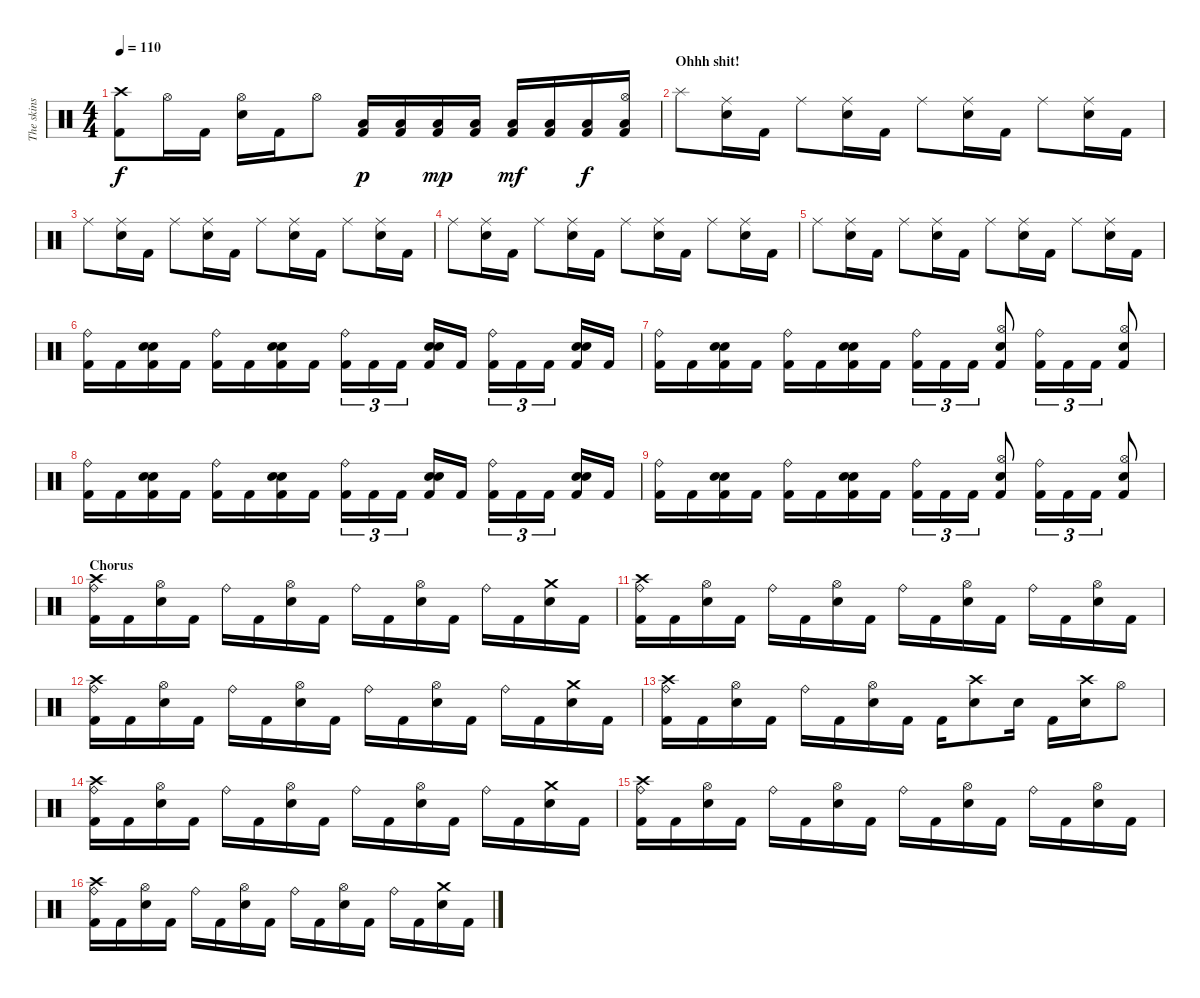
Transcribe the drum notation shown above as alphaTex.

\track ("The skins" "The skins") {instrument percussion}
\staff {score}
\articulation defaults
\ts (4 4)
\tempo 110
\clef neutral
\ks c
("Crash high (hit)" "Kick (hit) 2").8{dy f} "Hi-Hat (open)".16 "Kick (hit) 2".16 ("Hi-Hat (open)" "Electric Snare (hit)").16 "Kick (hit) 2".16 "Hi-Hat (open)".8 ("Low Floor Tom (hit)" "Kick (hit) 2").16{dy p} ("Low Floor Tom (hit)" "Kick (hit) 2").16 ("Low Floor Tom (hit)" "Kick (hit) 2").16{dy mp} ("Low Floor Tom (hit)" "Kick (hit) 2").16 ("Low Floor Tom (hit)" "Kick (hit) 2").16{dy mf} ("Low Floor Tom (hit)" "Kick (hit) 2").16 ("Low Floor Tom (hit)" "Kick (hit) 2").16{dy f} ("Hi-Hat (open)" "Low Floor Tom (hit)" "Kick (hit) 2").16 |
\section ("" "Ohhh shit!")
"Splash (hit)".8 ("Ride (middle)" "Electric Snare (hit)").16 "Kick (hit) 2".16 "Ride (middle)".8 ("Ride (middle)" "Electric Snare (hit)").16 "Kick (hit) 2".16 "Ride (middle)".8 ("Ride (middle)" "Electric Snare (hit)").16 "Kick (hit) 2".16 "Ride (middle)".8 ("Ride (middle)" "Electric Snare (hit)").16 "Kick (hit) 2".16 |
"Ride (middle)".8 ("Ride (middle)" "Electric Snare (hit)").16 "Kick (hit) 2".16 "Ride (middle)".8 ("Ride (middle)" "Electric Snare (hit)").16 "Kick (hit) 2".16 "Ride (middle)".8 ("Ride (middle)" "Electric Snare (hit)").16 "Kick (hit) 2".16 "Ride (middle)".8 ("Ride (middle)" "Electric Snare (hit)").16 "Kick (hit) 2".16 |
"Ride (middle)".8 ("Ride (middle)" "Electric Snare (hit)").16 "Kick (hit) 2".16 "Ride (middle)".8 ("Ride (middle)" "Electric Snare (hit)").16 "Kick (hit) 2".16 "Ride (middle)".8 ("Ride (middle)" "Electric Snare (hit)").16 "Kick (hit) 2".16 "Ride (middle)".8 ("Ride (middle)" "Electric Snare (hit)").16 "Kick (hit) 2".16 |
"Ride (middle)".8 ("Ride (middle)" "Electric Snare (hit)").16 "Kick (hit) 2".16 "Ride (middle)".8 ("Ride (middle)" "Electric Snare (hit)").16 "Kick (hit) 2".16 "Ride (middle)".8 ("Ride (middle)" "Electric Snare (hit)").16 "Kick (hit) 2".16 "Ride (middle)".8 ("Ride (middle)" "Electric Snare (hit)").16 "Kick (hit) 2".16 |
("Ride (bell)" "Kick (hit) 2").16 "Kick (hit) 2".16 ("Electric Snare (hit)" "Electric Snare (hit)" "Kick (hit) 2").16 "Kick (hit) 2".16 ("Ride (bell)" "Kick (hit) 2").16 "Kick (hit) 2".16 ("Electric Snare (hit)" "Electric Snare (hit)" "Kick (hit) 2").16 "Kick (hit) 2".16 ("Ride (bell)" "Kick (hit) 2").16{tu (3 2)} "Kick (hit) 2".16{tu (3 2)} "Kick (hit) 2".16{tu (3 2)} ("Electric Snare (hit)" "Electric Snare (hit)" "Kick (hit) 2").16 "Kick (hit) 2".16 ("Ride (bell)" "Kick (hit) 2").16{tu (3 2)} "Kick (hit) 2".16{tu (3 2)} "Kick (hit) 2".16{tu (3 2)} ("Electric Snare (hit)" "Electric Snare (hit)" "Kick (hit) 2").16 "Kick (hit) 2".16 |
("Ride (bell)" "Kick (hit) 2").16 "Kick (hit) 2".16 ("Electric Snare (hit)" "Electric Snare (hit)" "Kick (hit) 2").16 "Kick (hit) 2".16 ("Ride (bell)" "Kick (hit) 2").16 "Kick (hit) 2".16 ("Electric Snare (hit)" "Electric Snare (hit)" "Kick (hit) 2").16 "Kick (hit) 2".16 ("Ride (bell)" "Kick (hit) 2").16{tu (3 2)} "Kick (hit) 2".16{tu (3 2)} "Kick (hit) 2".16{tu (3 2)} ("Hi-Hat (open)" "Electric Snare (hit)" "Kick (hit) 2").8 ("Ride (bell)" "Kick (hit) 2").16{tu (3 2)} "Kick (hit) 2".16{tu (3 2)} "Kick (hit) 2".16{tu (3 2)} ("Hi-Hat (open)" "Electric Snare (hit)" "Kick (hit) 2").8 |
("Ride (bell)" "Kick (hit) 2").16 "Kick (hit) 2".16 ("Electric Snare (hit)" "Electric Snare (hit)" "Kick (hit) 2").16 "Kick (hit) 2".16 ("Ride (bell)" "Kick (hit) 2").16 "Kick (hit) 2".16 ("Electric Snare (hit)" "Electric Snare (hit)" "Kick (hit) 2").16 "Kick (hit) 2".16 ("Ride (bell)" "Kick (hit) 2").16{tu (3 2)} "Kick (hit) 2".16{tu (3 2)} "Kick (hit) 2".16{tu (3 2)} ("Electric Snare (hit)" "Electric Snare (hit)" "Kick (hit) 2").16 "Kick (hit) 2".16 ("Ride (bell)" "Kick (hit) 2").16{tu (3 2)} "Kick (hit) 2".16{tu (3 2)} "Kick (hit) 2".16{tu (3 2)} ("Electric Snare (hit)" "Electric Snare (hit)" "Kick (hit) 2").16 "Kick (hit) 2".16 |
("Ride (bell)" "Kick (hit) 2").16 "Kick (hit) 2".16 ("Electric Snare (hit)" "Electric Snare (hit)" "Kick (hit) 2").16 "Kick (hit) 2".16 ("Ride (bell)" "Kick (hit) 2").16 "Kick (hit) 2".16 ("Electric Snare (hit)" "Electric Snare (hit)" "Kick (hit) 2").16 "Kick (hit) 2".16 ("Ride (bell)" "Kick (hit) 2").16{tu (3 2)} "Kick (hit) 2".16{tu (3 2)} "Kick (hit) 2".16{tu (3 2)} ("Hi-Hat (open)" "Electric Snare (hit)" "Kick (hit) 2").8 ("Ride (bell)" "Kick (hit) 2").16{tu (3 2)} "Kick (hit) 2".16{tu (3 2)} "Kick (hit) 2".16{tu (3 2)} ("Hi-Hat (open)" "Electric Snare (hit)" "Kick (hit) 2").8 |
\section ("" "Chorus")
("Crash high (hit)" "Ride (bell)" "Kick (hit) 2").16 "Kick (hit) 2".16 ("Hi-Hat (open)" "Electric Snare (hit)").16 "Kick (hit) 2".16 "Ride (bell)".16 "Kick (hit) 2".16 ("Hi-Hat (open)" "Electric Snare (hit)").16 "Kick (hit) 2".16 "Ride (bell)".16 "Kick (hit) 2".16 ("Hi-Hat (open)" "Electric Snare (hit)").16 "Kick (hit) 2".16 "Ride (bell)".16 "Kick (hit) 2".16 ("Crash medium (hit)" "Electric Snare (hit)").16 "Kick (hit) 2".16 |
("Crash high (hit)" "Ride (bell)" "Kick (hit) 2").16 "Kick (hit) 2".16 ("Hi-Hat (open)" "Electric Snare (hit)").16 "Kick (hit) 2".16 "Ride (bell)".16 "Kick (hit) 2".16 ("Hi-Hat (open)" "Electric Snare (hit)").16 "Kick (hit) 2".16 "Ride (bell)".16 "Kick (hit) 2".16 ("Hi-Hat (open)" "Electric Snare (hit)").16 "Kick (hit) 2".16 "Ride (bell)".16 "Kick (hit) 2".16 ("Hi-Hat (open)" "Electric Snare (hit)").16 "Kick (hit) 2".16 |
("Crash high (hit)" "Ride (bell)" "Kick (hit) 2").16 "Kick (hit) 2".16 ("Hi-Hat (open)" "Electric Snare (hit)").16 "Kick (hit) 2".16 "Ride (bell)".16 "Kick (hit) 2".16 ("Hi-Hat (open)" "Electric Snare (hit)").16 "Kick (hit) 2".16 "Ride (bell)".16 "Kick (hit) 2".16 ("Hi-Hat (open)" "Electric Snare (hit)").16 "Kick (hit) 2".16 "Ride (bell)".16 "Kick (hit) 2".16 ("Crash medium (hit)" "Electric Snare (hit)").16 "Kick (hit) 2".16 |
("Crash high (hit)" "Ride (bell)" "Kick (hit) 2").16 "Kick (hit) 2".16 ("Hi-Hat (open)" "Electric Snare (hit)").16 "Kick (hit) 2".16 "Ride (bell)".16 "Kick (hit) 2".16 ("Hi-Hat (open)" "Electric Snare (hit)").16 "Kick (hit) 2".16 "Kick (hit) 2".16 ("Crash high (hit)" "Electric Snare (hit)").8 "Electric Snare (hit)".16 "Kick (hit) 2".16 ("Crash high (hit)" "Electric Snare (hit)").16 "Hi-Hat (open)".8 |
("Crash high (hit)" "Ride (bell)" "Kick (hit) 2").16 "Kick (hit) 2".16 ("Hi-Hat (open)" "Electric Snare (hit)").16 "Kick (hit) 2".16 "Ride (bell)".16 "Kick (hit) 2".16 ("Hi-Hat (open)" "Electric Snare (hit)").16 "Kick (hit) 2".16 "Ride (bell)".16 "Kick (hit) 2".16 ("Hi-Hat (open)" "Electric Snare (hit)").16 "Kick (hit) 2".16 "Ride (bell)".16 "Kick (hit) 2".16 ("Crash medium (hit)" "Electric Snare (hit)").16 "Kick (hit) 2".16 |
("Crash high (hit)" "Ride (bell)" "Kick (hit) 2").16 "Kick (hit) 2".16 ("Hi-Hat (open)" "Electric Snare (hit)").16 "Kick (hit) 2".16 "Ride (bell)".16 "Kick (hit) 2".16 ("Hi-Hat (open)" "Electric Snare (hit)").16 "Kick (hit) 2".16 "Ride (bell)".16 "Kick (hit) 2".16 ("Hi-Hat (open)" "Electric Snare (hit)").16 "Kick (hit) 2".16 "Ride (bell)".16 "Kick (hit) 2".16 ("Hi-Hat (open)" "Electric Snare (hit)").16 "Kick (hit) 2".16 |
("Crash high (hit)" "Ride (bell)" "Kick (hit) 2").16 "Kick (hit) 2".16 ("Hi-Hat (open)" "Electric Snare (hit)").16 "Kick (hit) 2".16 "Ride (bell)".16 "Kick (hit) 2".16 ("Hi-Hat (open)" "Electric Snare (hit)").16 "Kick (hit) 2".16 "Ride (bell)".16 "Kick (hit) 2".16 ("Hi-Hat (open)" "Electric Snare (hit)").16 "Kick (hit) 2".16 "Ride (bell)".16 "Kick (hit) 2".16 ("Crash medium (hit)" "Electric Snare (hit)").16 "Kick (hit) 2".16
